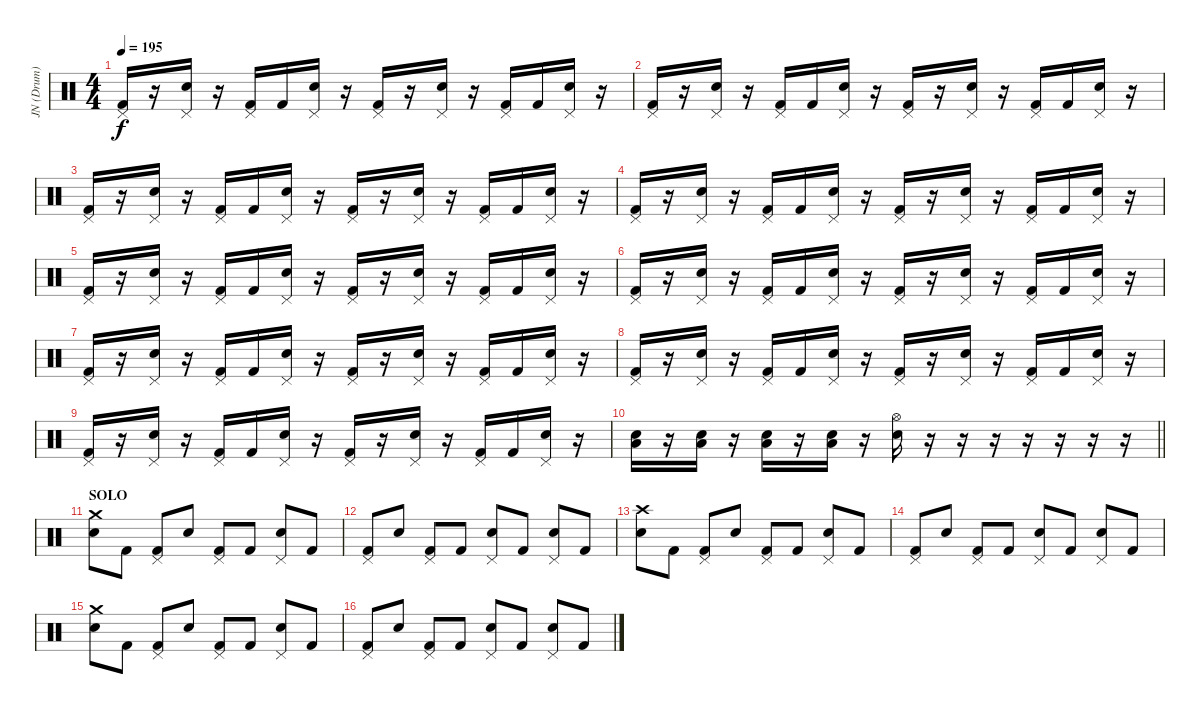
\track ("JN (Drum)" "JN (Drum)") {instrument percussion}
\staff {score}
\articulation defaults
\ts (4 4)
\tempo 195
\clef neutral
\ks c
("Pedal Hi-Hat (hit)" "Kick (hit) 2").16{dy f} r.16 ("Pedal Hi-Hat (hit)" "Electric Snare (hit)").16 r.16 ("Pedal Hi-Hat (hit)" "Kick (hit) 2").16 "Kick (hit) 2".16 ("Pedal Hi-Hat (hit)" "Electric Snare (hit)").16 r.16 ("Pedal Hi-Hat (hit)" "Kick (hit) 2").16 r.16 ("Pedal Hi-Hat (hit)" "Electric Snare (hit)").16 r.16 ("Pedal Hi-Hat (hit)" "Kick (hit) 2").16 "Kick (hit) 2".16 ("Pedal Hi-Hat (hit)" "Electric Snare (hit)").16 r.16 |
("Pedal Hi-Hat (hit)" "Kick (hit) 2").16 r.16 ("Pedal Hi-Hat (hit)" "Electric Snare (hit)").16 r.16 ("Pedal Hi-Hat (hit)" "Kick (hit) 2").16 "Kick (hit) 2".16 ("Pedal Hi-Hat (hit)" "Electric Snare (hit)").16 r.16 ("Pedal Hi-Hat (hit)" "Kick (hit) 2").16 r.16 ("Pedal Hi-Hat (hit)" "Electric Snare (hit)").16 r.16 ("Pedal Hi-Hat (hit)" "Kick (hit) 2").16 "Kick (hit) 2".16 ("Pedal Hi-Hat (hit)" "Electric Snare (hit)").16 r.16 |
("Pedal Hi-Hat (hit)" "Kick (hit) 2").16 r.16 ("Pedal Hi-Hat (hit)" "Electric Snare (hit)").16 r.16 ("Pedal Hi-Hat (hit)" "Kick (hit) 2").16 "Kick (hit) 2".16 ("Pedal Hi-Hat (hit)" "Electric Snare (hit)").16 r.16 ("Pedal Hi-Hat (hit)" "Kick (hit) 2").16 r.16 ("Pedal Hi-Hat (hit)" "Electric Snare (hit)").16 r.16 ("Pedal Hi-Hat (hit)" "Kick (hit) 2").16 "Kick (hit) 2".16 ("Pedal Hi-Hat (hit)" "Electric Snare (hit)").16 r.16 |
("Pedal Hi-Hat (hit)" "Kick (hit) 2").16 r.16 ("Pedal Hi-Hat (hit)" "Electric Snare (hit)").16 r.16 ("Pedal Hi-Hat (hit)" "Kick (hit) 2").16 "Kick (hit) 2".16 ("Pedal Hi-Hat (hit)" "Electric Snare (hit)").16 r.16 ("Pedal Hi-Hat (hit)" "Kick (hit) 2").16 r.16 ("Pedal Hi-Hat (hit)" "Electric Snare (hit)").16 r.16 ("Pedal Hi-Hat (hit)" "Kick (hit) 2").16 "Kick (hit) 2".16 ("Pedal Hi-Hat (hit)" "Electric Snare (hit)").16 r.16 |
("Pedal Hi-Hat (hit)" "Kick (hit) 2").16 r.16 ("Pedal Hi-Hat (hit)" "Electric Snare (hit)").16 r.16 ("Pedal Hi-Hat (hit)" "Kick (hit) 2").16 "Kick (hit) 2".16 ("Pedal Hi-Hat (hit)" "Electric Snare (hit)").16 r.16 ("Pedal Hi-Hat (hit)" "Kick (hit) 2").16 r.16 ("Pedal Hi-Hat (hit)" "Electric Snare (hit)").16 r.16 ("Pedal Hi-Hat (hit)" "Kick (hit) 2").16 "Kick (hit) 2".16 ("Pedal Hi-Hat (hit)" "Electric Snare (hit)").16 r.16 |
("Pedal Hi-Hat (hit)" "Kick (hit) 2").16 r.16 ("Pedal Hi-Hat (hit)" "Electric Snare (hit)").16 r.16 ("Pedal Hi-Hat (hit)" "Kick (hit) 2").16 "Kick (hit) 2".16 ("Pedal Hi-Hat (hit)" "Electric Snare (hit)").16 r.16 ("Pedal Hi-Hat (hit)" "Kick (hit) 2").16 r.16 ("Pedal Hi-Hat (hit)" "Electric Snare (hit)").16 r.16 ("Pedal Hi-Hat (hit)" "Kick (hit) 2").16 "Kick (hit) 2".16 ("Pedal Hi-Hat (hit)" "Electric Snare (hit)").16 r.16 |
("Pedal Hi-Hat (hit)" "Kick (hit) 2").16 r.16 ("Pedal Hi-Hat (hit)" "Electric Snare (hit)").16 r.16 ("Pedal Hi-Hat (hit)" "Kick (hit) 2").16 "Kick (hit) 2".16 ("Pedal Hi-Hat (hit)" "Electric Snare (hit)").16 r.16 ("Pedal Hi-Hat (hit)" "Kick (hit) 2").16 r.16 ("Pedal Hi-Hat (hit)" "Electric Snare (hit)").16 r.16 ("Pedal Hi-Hat (hit)" "Kick (hit) 2").16 "Kick (hit) 2".16 ("Pedal Hi-Hat (hit)" "Electric Snare (hit)").16 r.16 |
("Pedal Hi-Hat (hit)" "Kick (hit) 2").16 r.16 ("Pedal Hi-Hat (hit)" "Electric Snare (hit)").16 r.16 ("Pedal Hi-Hat (hit)" "Kick (hit) 2").16 "Kick (hit) 2".16 ("Pedal Hi-Hat (hit)" "Electric Snare (hit)").16 r.16 ("Pedal Hi-Hat (hit)" "Kick (hit) 2").16 r.16 ("Pedal Hi-Hat (hit)" "Electric Snare (hit)").16 r.16 ("Pedal Hi-Hat (hit)" "Kick (hit) 2").16 "Kick (hit) 2".16 ("Pedal Hi-Hat (hit)" "Electric Snare (hit)").16 r.16 |
("Pedal Hi-Hat (hit)" "Kick (hit) 2").16 r.16 ("Pedal Hi-Hat (hit)" "Electric Snare (hit)").16 r.16 ("Pedal Hi-Hat (hit)" "Kick (hit) 2").16 "Kick (hit) 2".16 ("Pedal Hi-Hat (hit)" "Electric Snare (hit)").16 r.16 ("Pedal Hi-Hat (hit)" "Kick (hit) 2").16 r.16 ("Pedal Hi-Hat (hit)" "Electric Snare (hit)").16 r.16 ("Pedal Hi-Hat (hit)" "Kick (hit) 2").16 "Kick (hit) 2".16 ("Pedal Hi-Hat (hit)" "Electric Snare (hit)").16 r.16 |
\barLineRight lightlight
("Low Tom (hit)" "Electric Snare (hit)").16 r.16 ("Low Tom (hit)" "Electric Snare (hit)").16 r.16 ("Low Tom (hit)" "Electric Snare (hit)").16 r.16 ("Low Tom (hit)" "Electric Snare (hit)").16 r.16 ("Hi-Hat (open)" "Electric Snare (hit)").16 r.16 r.16 r.16 r.16 r.16 r.16 r.16 |
\section ("" "SOLO")
("Crash medium (hit)" "Electric Snare (hit)").8 "Kick (hit) 2".8 ("Pedal Hi-Hat (hit)" "Kick (hit) 2").8 "Electric Snare (hit)".8 ("Pedal Hi-Hat (hit)" "Kick (hit) 2").8 "Kick (hit) 2".8 ("Pedal Hi-Hat (hit)" "Electric Snare (hit)").8 "Kick (hit) 2".8 |
("Pedal Hi-Hat (hit)" "Kick (hit) 2").8 "Electric Snare (hit)".8 ("Pedal Hi-Hat (hit)" "Kick (hit) 2").8 "Kick (hit) 2".8 ("Pedal Hi-Hat (hit)" "Electric Snare (hit)").8 "Kick (hit) 2".8 ("Pedal Hi-Hat (hit)" "Electric Snare (hit)").8 "Kick (hit) 2".8 |
("Crash high (hit)" "Electric Snare (hit)").8 "Kick (hit) 2".8 ("Pedal Hi-Hat (hit)" "Kick (hit) 2").8 "Electric Snare (hit)".8 ("Pedal Hi-Hat (hit)" "Kick (hit) 2").8 "Kick (hit) 2".8 ("Pedal Hi-Hat (hit)" "Electric Snare (hit)").8 "Kick (hit) 2".8 |
("Pedal Hi-Hat (hit)" "Kick (hit) 2").8 "Electric Snare (hit)".8 ("Pedal Hi-Hat (hit)" "Kick (hit) 2").8 "Kick (hit) 2".8 ("Pedal Hi-Hat (hit)" "Electric Snare (hit)").8 "Kick (hit) 2".8 ("Pedal Hi-Hat (hit)" "Electric Snare (hit)").8 "Kick (hit) 2".8 |
("Crash medium (hit)" "Electric Snare (hit)").8 "Kick (hit) 2".8 ("Pedal Hi-Hat (hit)" "Kick (hit) 2").8 "Electric Snare (hit)".8 ("Pedal Hi-Hat (hit)" "Kick (hit) 2").8 "Kick (hit) 2".8 ("Pedal Hi-Hat (hit)" "Electric Snare (hit)").8 "Kick (hit) 2".8 |
("Pedal Hi-Hat (hit)" "Kick (hit) 2").8 "Electric Snare (hit)".8 ("Pedal Hi-Hat (hit)" "Kick (hit) 2").8 "Kick (hit) 2".8 ("Pedal Hi-Hat (hit)" "Electric Snare (hit)").8 "Kick (hit) 2".8 ("Pedal Hi-Hat (hit)" "Electric Snare (hit)").8 "Kick (hit) 2".8
